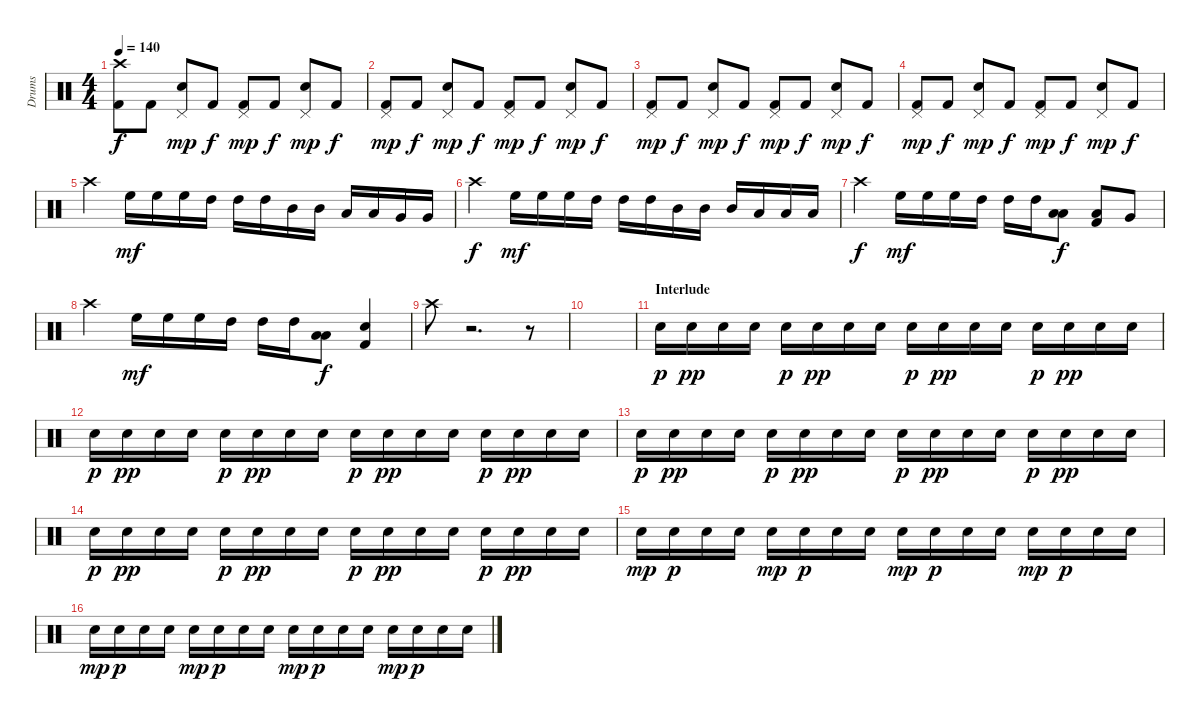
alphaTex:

\track ("Drums" "Drums") {instrument percussion}
\staff {score}
\articulation defaults
\ts (4 4)
\tempo 140
\clef neutral
\ks c
("Crash high (hit)" "Kick (hit) 2").8{dy f} "Kick (hit) 2".8 ("Pedal Hi-Hat (hit)" "Snare (hit) 2").8{dy mp} "Kick (hit) 2".8{dy f} ("Pedal Hi-Hat (hit)" "Kick (hit) 2").8{dy mp} "Kick (hit) 2".8{dy f} ("Pedal Hi-Hat (hit)" "Snare (hit) 2").8{dy mp} "Kick (hit) 2".8{dy f} |
("Pedal Hi-Hat (hit)" "Kick (hit) 2").8{dy mp} "Kick (hit) 2".8{dy f} ("Pedal Hi-Hat (hit)" "Snare (hit) 2").8{dy mp} "Kick (hit) 2".8{dy f} ("Pedal Hi-Hat (hit)" "Kick (hit) 2").8{dy mp} "Kick (hit) 2".8{dy f} ("Pedal Hi-Hat (hit)" "Snare (hit) 2").8{dy mp} "Kick (hit) 2".8{dy f} |
("Pedal Hi-Hat (hit)" "Kick (hit) 2").8{dy mp} "Kick (hit) 2".8{dy f} ("Pedal Hi-Hat (hit)" "Snare (hit) 2").8{dy mp} "Kick (hit) 2".8{dy f} ("Pedal Hi-Hat (hit)" "Kick (hit) 2").8{dy mp} "Kick (hit) 2".8{dy f} ("Pedal Hi-Hat (hit)" "Snare (hit) 2").8{dy mp} "Kick (hit) 2".8{dy f} |
("Pedal Hi-Hat (hit)" "Kick (hit) 2").8{dy mp} "Kick (hit) 2".8{dy f} ("Pedal Hi-Hat (hit)" "Snare (hit) 2").8{dy mp} "Kick (hit) 2".8{dy f} ("Pedal Hi-Hat (hit)" "Kick (hit) 2").8{dy mp} "Kick (hit) 2".8{dy f} ("Pedal Hi-Hat (hit)" "Snare (hit) 2").8{dy mp} "Kick (hit) 2".8{dy f} |
"Crash high (hit)".4 "High Floor Tom (hit)".16{dy mf} "High Floor Tom (hit)".16 "High Floor Tom (hit)".16 "High Tom (hit)".16 "High Tom (hit)".16 "High Tom (hit)".16 "Mid Tom (hit)".16 "Mid Tom (hit)".16 "Low Tom (hit)".16 "Low Tom (hit)".16 "Very Low Tom (hit)".16 "Very Low Tom (hit)".16 |
"Crash high (hit)".4{dy f} "High Floor Tom (hit)".16{dy mf} "High Floor Tom (hit)".16 "High Floor Tom (hit)".16 "High Tom (hit)".16 "High Tom (hit)".16 "High Tom (hit)".16 "Mid Tom (hit)".16 "Mid Tom (hit)".16 "Mid Tom (hit)".16 "Low Tom (hit)".16 "Low Tom (hit)".16 "Low Tom (hit)".16 |
"Crash high (hit)".4{dy f} "High Floor Tom (hit)".16{dy mf} "High Floor Tom (hit)".16 "High Floor Tom (hit)".16 "High Tom (hit)".16 "High Tom (hit)".16 "High Tom (hit)".16 ("Low Tom (hit)" "Low Tom (hit)").8{dy f} ("Low Tom (hit)" "Kick (hit) 2").8 "Very Low Tom (hit)".8 |
"Crash high (hit)".4 "High Floor Tom (hit)".16{dy mf} "High Floor Tom (hit)".16 "High Floor Tom (hit)".16 "High Tom (hit)".16 "High Tom (hit)".16 "High Tom (hit)".16 ("Low Tom (hit)" "Low Tom (hit)").8{dy f} ("Snare (hit) 2" "Kick (hit) 2").4 |
"Crash high (hit)".8 r.2{d} r.8 |
|
\section ("" "Interlude")
"Snare (hit) 2".16{dy p} "Snare (hit) 2".16{dy pp} "Snare (hit) 2".16 "Snare (hit) 2".16 "Snare (hit) 2".16{dy p} "Snare (hit) 2".16{dy pp} "Snare (hit) 2".16 "Snare (hit) 2".16 "Snare (hit) 2".16{dy p} "Snare (hit) 2".16{dy pp} "Snare (hit) 2".16 "Snare (hit) 2".16 "Snare (hit) 2".16{dy p} "Snare (hit) 2".16{dy pp} "Snare (hit) 2".16 "Snare (hit) 2".16 |
"Snare (hit) 2".16{dy p} "Snare (hit) 2".16{dy pp} "Snare (hit) 2".16 "Snare (hit) 2".16 "Snare (hit) 2".16{dy p} "Snare (hit) 2".16{dy pp} "Snare (hit) 2".16 "Snare (hit) 2".16 "Snare (hit) 2".16{dy p} "Snare (hit) 2".16{dy pp} "Snare (hit) 2".16 "Snare (hit) 2".16 "Snare (hit) 2".16{dy p} "Snare (hit) 2".16{dy pp} "Snare (hit) 2".16 "Snare (hit) 2".16 |
"Snare (hit) 2".16{dy p} "Snare (hit) 2".16{dy pp} "Snare (hit) 2".16 "Snare (hit) 2".16 "Snare (hit) 2".16{dy p} "Snare (hit) 2".16{dy pp} "Snare (hit) 2".16 "Snare (hit) 2".16 "Snare (hit) 2".16{dy p} "Snare (hit) 2".16{dy pp} "Snare (hit) 2".16 "Snare (hit) 2".16 "Snare (hit) 2".16{dy p} "Snare (hit) 2".16{dy pp} "Snare (hit) 2".16 "Snare (hit) 2".16 |
"Snare (hit) 2".16{dy p} "Snare (hit) 2".16{dy pp} "Snare (hit) 2".16 "Snare (hit) 2".16 "Snare (hit) 2".16{dy p} "Snare (hit) 2".16{dy pp} "Snare (hit) 2".16 "Snare (hit) 2".16 "Snare (hit) 2".16{dy p} "Snare (hit) 2".16{dy pp} "Snare (hit) 2".16 "Snare (hit) 2".16 "Snare (hit) 2".16{dy p} "Snare (hit) 2".16{dy pp} "Snare (hit) 2".16 "Snare (hit) 2".16 |
"Snare (hit) 2".16{dy mp} "Snare (hit) 2".16{dy p} "Snare (hit) 2".16 "Snare (hit) 2".16 "Snare (hit) 2".16{dy mp} "Snare (hit) 2".16{dy p} "Snare (hit) 2".16 "Snare (hit) 2".16 "Snare (hit) 2".16{dy mp} "Snare (hit) 2".16{dy p} "Snare (hit) 2".16 "Snare (hit) 2".16 "Snare (hit) 2".16{dy mp} "Snare (hit) 2".16{dy p} "Snare (hit) 2".16 "Snare (hit) 2".16 |
"Snare (hit) 2".16{dy mp} "Snare (hit) 2".16{dy p} "Snare (hit) 2".16 "Snare (hit) 2".16 "Snare (hit) 2".16{dy mp} "Snare (hit) 2".16{dy p} "Snare (hit) 2".16 "Snare (hit) 2".16 "Snare (hit) 2".16{dy mp} "Snare (hit) 2".16{dy p} "Snare (hit) 2".16 "Snare (hit) 2".16 "Snare (hit) 2".16{dy mp} "Snare (hit) 2".16{dy p} "Snare (hit) 2".16 "Snare (hit) 2".16
